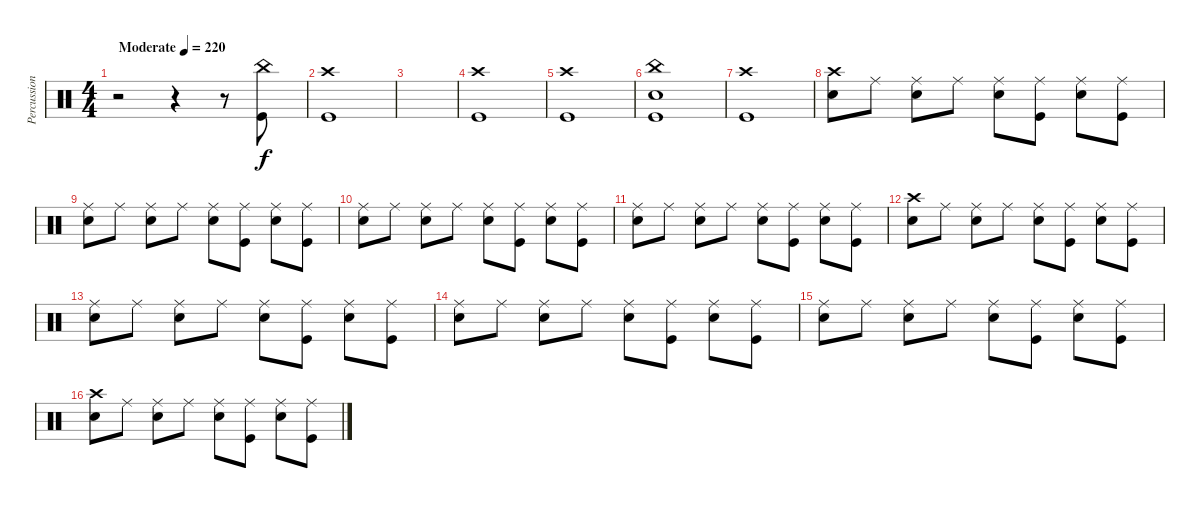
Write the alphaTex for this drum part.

\track ("Percussions" "Percussion") {instrument percussion}
\staff {score}
\articulation defaults
\ts (4 4)
\tempo (220 "Moderate")
\clef neutral
\ks c
r.2{dy f} r.4 r.8 ("China (hit)" "Kick (hit)").8 |
("Crash high (hit)" "Kick (hit)").1 |
|
("Crash high (hit)" "Kick (hit)").1 |
("Crash high (hit)" "Kick (hit)").1 |
("China (hit)" "Electric Snare (hit)" "Kick (hit)").1 |
("Crash high (hit)" "Kick (hit)").1 |
("Crash high (hit)" "Electric Snare (hit)").8 "Ride (middle)".8 ("Ride (middle)" "Electric Snare (hit)").8 "Ride (middle)".8 ("Ride (middle)" "Electric Snare (hit)").8 ("Ride (middle)" "Kick (hit)").8 ("Ride (middle)" "Electric Snare (hit)").8 ("Ride (middle)" "Kick (hit)").8 |
("Ride (middle)" "Electric Snare (hit)").8 "Ride (middle)".8 ("Ride (middle)" "Electric Snare (hit)").8 "Ride (middle)".8 ("Ride (middle)" "Electric Snare (hit)").8 ("Ride (middle)" "Kick (hit)").8 ("Ride (middle)" "Electric Snare (hit)").8 ("Ride (middle)" "Kick (hit)").8 |
("Ride (middle)" "Electric Snare (hit)").8 "Ride (middle)".8 ("Ride (middle)" "Electric Snare (hit)").8 "Ride (middle)".8 ("Ride (middle)" "Electric Snare (hit)").8 ("Ride (middle)" "Kick (hit)").8 ("Ride (middle)" "Electric Snare (hit)").8 ("Ride (middle)" "Kick (hit)").8 |
("Ride (middle)" "Electric Snare (hit)").8 "Ride (middle)".8 ("Ride (middle)" "Electric Snare (hit)").8 "Ride (middle)".8 ("Ride (middle)" "Electric Snare (hit)").8 ("Ride (middle)" "Kick (hit)").8 ("Ride (middle)" "Electric Snare (hit)").8 ("Ride (middle)" "Kick (hit)").8 |
("Crash high (hit)" "Electric Snare (hit)").8 "Ride (middle)".8 ("Ride (middle)" "Electric Snare (hit)").8 "Ride (middle)".8 ("Ride (middle)" "Electric Snare (hit)").8 ("Ride (middle)" "Kick (hit)").8 ("Ride (middle)" "Electric Snare (hit)").8 ("Ride (middle)" "Kick (hit)").8 |
("Ride (middle)" "Electric Snare (hit)").8 "Ride (middle)".8 ("Ride (middle)" "Electric Snare (hit)").8 "Ride (middle)".8 ("Ride (middle)" "Electric Snare (hit)").8 ("Ride (middle)" "Kick (hit)").8 ("Ride (middle)" "Electric Snare (hit)").8 ("Ride (middle)" "Kick (hit)").8 |
("Ride (middle)" "Electric Snare (hit)").8 "Ride (middle)".8 ("Ride (middle)" "Electric Snare (hit)").8 "Ride (middle)".8 ("Ride (middle)" "Electric Snare (hit)").8 ("Ride (middle)" "Kick (hit)").8 ("Ride (middle)" "Electric Snare (hit)").8 ("Ride (middle)" "Kick (hit)").8 |
("Ride (middle)" "Electric Snare (hit)").8 "Ride (middle)".8 ("Ride (middle)" "Electric Snare (hit)").8 "Ride (middle)".8 ("Ride (middle)" "Electric Snare (hit)").8 ("Ride (middle)" "Kick (hit)").8 ("Ride (middle)" "Electric Snare (hit)").8 ("Ride (middle)" "Kick (hit)").8 |
("Crash high (hit)" "Electric Snare (hit)").8 "Ride (middle)".8 ("Ride (middle)" "Electric Snare (hit)").8 "Ride (middle)".8 ("Ride (middle)" "Electric Snare (hit)").8 ("Ride (middle)" "Kick (hit)").8 ("Ride (middle)" "Electric Snare (hit)").8 ("Ride (middle)" "Kick (hit)").8
